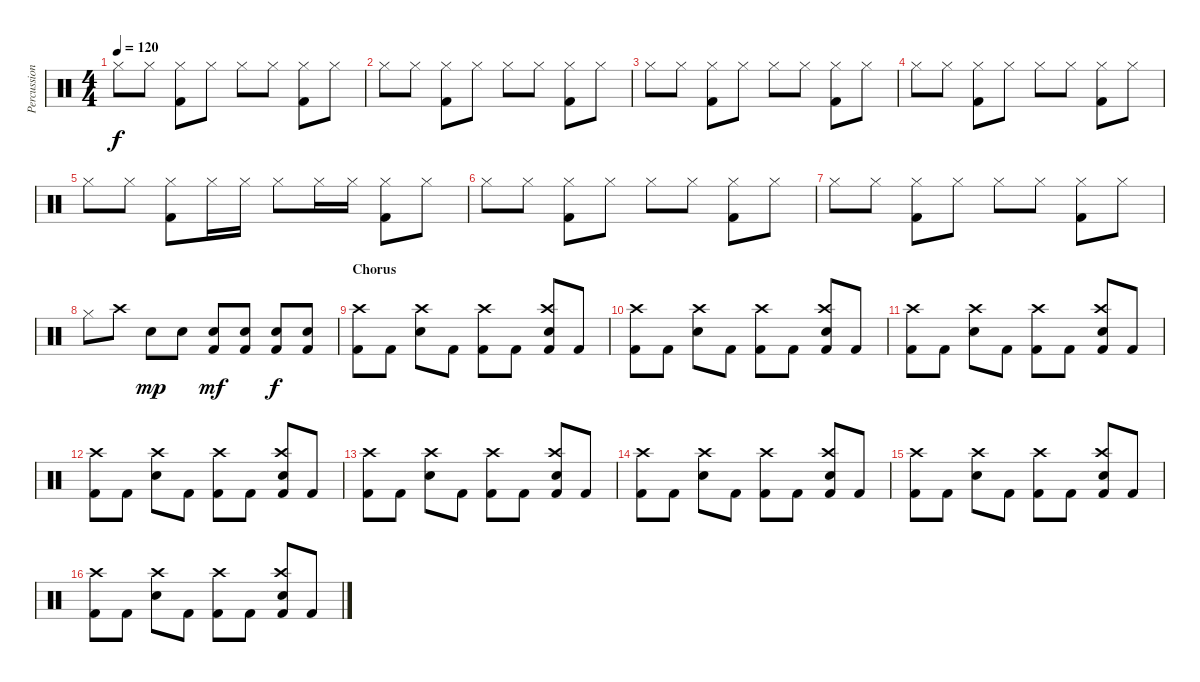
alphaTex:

\track ("Percussion" "Percussion") {instrument percussion}
\staff {score}
\articulation defaults
\ts (4 4)
\tempo 120
\clef neutral
\ks c "Hi-Hat (closed)".8{dy f} "Hi-Hat (closed)".8
("Hi-Hat (closed)" "Kick (hit) 2").8 "Hi-Hat (closed)".8 "Hi-Hat (closed)".8 "Hi-Hat (closed)".8 ("Hi-Hat (closed)" "Kick (hit) 2").8 "Hi-Hat (closed)".8 |
"Hi-Hat (closed)".8 "Hi-Hat (closed)".8 ("Hi-Hat (closed)" "Kick (hit) 2").8 "Hi-Hat (closed)".8 "Hi-Hat (closed)".8 "Hi-Hat (closed)".8 ("Hi-Hat (closed)" "Kick (hit) 2").8 "Hi-Hat (closed)".8 |
"Hi-Hat (closed)".8 "Hi-Hat (closed)".8 ("Hi-Hat (closed)" "Kick (hit) 2").8 "Hi-Hat (closed)".8 "Hi-Hat (closed)".8 "Hi-Hat (closed)".8 ("Hi-Hat (closed)" "Kick (hit) 2").8 "Hi-Hat (closed)".8 |
"Hi-Hat (closed)".8 "Hi-Hat (closed)".8 ("Hi-Hat (closed)" "Kick (hit) 2").8 "Hi-Hat (closed)".8 "Hi-Hat (closed)".8 "Hi-Hat (closed)".8 ("Hi-Hat (closed)" "Kick (hit) 2").8 "Hi-Hat (closed)".8 |
"Hi-Hat (closed)".8 "Hi-Hat (closed)".8 ("Hi-Hat (closed)" "Kick (hit) 2").8 "Hi-Hat (closed)".16 "Hi-Hat (closed)".16 "Hi-Hat (closed)".8 "Hi-Hat (closed)".16 "Hi-Hat (closed)".16 ("Hi-Hat (closed)" "Kick (hit) 2").8 "Hi-Hat (closed)".8 |
"Hi-Hat (closed)".8 "Hi-Hat (closed)".8 ("Hi-Hat (closed)" "Kick (hit) 2").8 "Hi-Hat (closed)".8 "Hi-Hat (closed)".8 "Hi-Hat (closed)".8 ("Hi-Hat (closed)" "Kick (hit) 2").8 "Hi-Hat (closed)".8 |
"Hi-Hat (closed)".8 "Hi-Hat (closed)".8 ("Hi-Hat (closed)" "Kick (hit) 2").8 "Hi-Hat (closed)".8 "Hi-Hat (closed)".8 "Hi-Hat (closed)".8 ("Hi-Hat (closed)" "Kick (hit) 2").8 "Hi-Hat (closed)".8 |
"Hi-Hat (closed)".8 "Crash high (hit)".8 "Electric Snare (hit)".8{dy mp} "Electric Snare (hit)".8 ("Electric Snare (hit)" "Kick (hit) 2").8{dy mf} ("Electric Snare (hit)" "Kick (hit) 2").8 ("Electric Snare (hit)" "Kick (hit) 2").8{dy f} ("Electric Snare (hit)" "Kick (hit) 2").8 |
\section ("" "Chorus")
("Crash high (hit)" "Kick (hit) 2").8 "Kick (hit) 2".8 ("Crash high (hit)" "Electric Snare (hit)").8 "Kick (hit) 2".8 ("Crash high (hit)" "Kick (hit) 2").8 "Kick (hit) 2".8 ("Crash high (hit)" "Electric Snare (hit)" "Kick (hit) 2").8 "Kick (hit) 2".8 |
("Crash high (hit)" "Kick (hit) 2").8 "Kick (hit) 2".8 ("Crash high (hit)" "Electric Snare (hit)").8 "Kick (hit) 2".8 ("Crash high (hit)" "Kick (hit) 2").8 "Kick (hit) 2".8 ("Crash high (hit)" "Electric Snare (hit)" "Kick (hit) 2").8 "Kick (hit) 2".8 |
("Crash high (hit)" "Kick (hit) 2").8 "Kick (hit) 2".8 ("Crash high (hit)" "Electric Snare (hit)").8 "Kick (hit) 2".8 ("Crash high (hit)" "Kick (hit) 2").8 "Kick (hit) 2".8 ("Crash high (hit)" "Electric Snare (hit)" "Kick (hit) 2").8 "Kick (hit) 2".8 |
("Crash high (hit)" "Kick (hit) 2").8 "Kick (hit) 2".8 ("Crash high (hit)" "Electric Snare (hit)").8 "Kick (hit) 2".8 ("Crash high (hit)" "Kick (hit) 2").8 "Kick (hit) 2".8 ("Crash high (hit)" "Electric Snare (hit)" "Kick (hit) 2").8 "Kick (hit) 2".8 |
("Crash high (hit)" "Kick (hit) 2").8 "Kick (hit) 2".8 ("Crash high (hit)" "Electric Snare (hit)").8 "Kick (hit) 2".8 ("Crash high (hit)" "Kick (hit) 2").8 "Kick (hit) 2".8 ("Crash high (hit)" "Electric Snare (hit)" "Kick (hit) 2").8 "Kick (hit) 2".8 |
("Crash high (hit)" "Kick (hit) 2").8 "Kick (hit) 2".8 ("Crash high (hit)" "Electric Snare (hit)").8 "Kick (hit) 2".8 ("Crash high (hit)" "Kick (hit) 2").8 "Kick (hit) 2".8 ("Crash high (hit)" "Electric Snare (hit)" "Kick (hit) 2").8 "Kick (hit) 2".8 |
("Crash high (hit)" "Kick (hit) 2").8 "Kick (hit) 2".8 ("Crash high (hit)" "Electric Snare (hit)").8 "Kick (hit) 2".8 ("Crash high (hit)" "Kick (hit) 2").8 "Kick (hit) 2".8 ("Crash high (hit)" "Electric Snare (hit)" "Kick (hit) 2").8 "Kick (hit) 2".8 |
("Crash high (hit)" "Kick (hit) 2").8 "Kick (hit) 2".8 ("Crash high (hit)" "Electric Snare (hit)").8 "Kick (hit) 2".8 ("Crash high (hit)" "Kick (hit) 2").8 "Kick (hit) 2".8 ("Crash high (hit)" "Electric Snare (hit)" "Kick (hit) 2").8 "Kick (hit) 2".8
